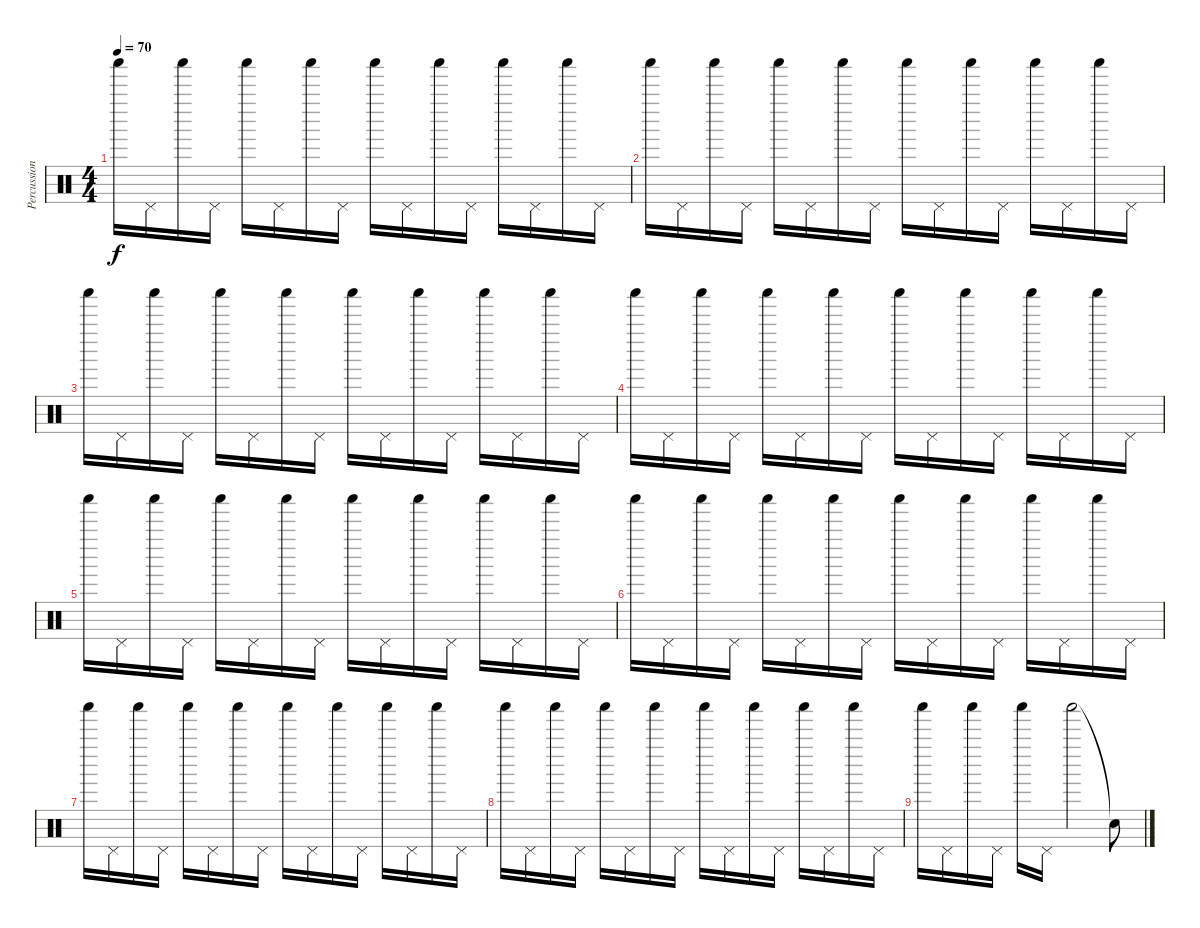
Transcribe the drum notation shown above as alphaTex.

\track ("Percussion 2" "Percussion") {instrument percussion}
\staff {score}
\articulation defaults
\ts (4 4)
\tempo 70
\clef neutral
\ks c "Shaker (hit)".16{dy f} "Pedal Hi-Hat (hit)".16 "Shaker (hit)".16 "Pedal Hi-Hat (hit)".16 "Shaker (hit)".16 "Pedal Hi-Hat (hit)".16 "Shaker (hit)".16 "Pedal Hi-Hat (hit)".16 "Shaker (hit)".16 "Pedal Hi-Hat (hit)".16 "Shaker (hit)".16 "Pedal Hi-Hat (hit)".16 "Shaker (hit)".16 "Pedal Hi-Hat (hit)".16 "Shaker (hit)".16 "Pedal Hi-Hat (hit)".16
|
"Shaker (hit)".16 "Pedal Hi-Hat (hit)".16 "Shaker (hit)".16 "Pedal Hi-Hat (hit)".16 "Shaker (hit)".16 "Pedal Hi-Hat (hit)".16 "Shaker (hit)".16 "Pedal Hi-Hat (hit)".16 "Shaker (hit)".16 "Pedal Hi-Hat (hit)".16 "Shaker (hit)".16 "Pedal Hi-Hat (hit)".16 "Shaker (hit)".16 "Pedal Hi-Hat (hit)".16 "Shaker (hit)".16 "Pedal Hi-Hat (hit)".16 |
"Shaker (hit)".16 "Pedal Hi-Hat (hit)".16 "Shaker (hit)".16 "Pedal Hi-Hat (hit)".16 "Shaker (hit)".16 "Pedal Hi-Hat (hit)".16 "Shaker (hit)".16 "Pedal Hi-Hat (hit)".16 "Shaker (hit)".16 "Pedal Hi-Hat (hit)".16 "Shaker (hit)".16 "Pedal Hi-Hat (hit)".16 "Shaker (hit)".16 "Pedal Hi-Hat (hit)".16 "Shaker (hit)".16 "Pedal Hi-Hat (hit)".16 |
"Shaker (hit)".16 "Pedal Hi-Hat (hit)".16 "Shaker (hit)".16 "Pedal Hi-Hat (hit)".16 "Shaker (hit)".16 "Pedal Hi-Hat (hit)".16 "Shaker (hit)".16 "Pedal Hi-Hat (hit)".16 "Shaker (hit)".16 "Pedal Hi-Hat (hit)".16 "Shaker (hit)".16 "Pedal Hi-Hat (hit)".16 "Shaker (hit)".16 "Pedal Hi-Hat (hit)".16 "Shaker (hit)".16 "Pedal Hi-Hat (hit)".16 |
"Shaker (hit)".16 "Pedal Hi-Hat (hit)".16 "Shaker (hit)".16 "Pedal Hi-Hat (hit)".16 "Shaker (hit)".16 "Pedal Hi-Hat (hit)".16 "Shaker (hit)".16 "Pedal Hi-Hat (hit)".16 "Shaker (hit)".16 "Pedal Hi-Hat (hit)".16 "Shaker (hit)".16 "Pedal Hi-Hat (hit)".16 "Shaker (hit)".16 "Pedal Hi-Hat (hit)".16 "Shaker (hit)".16 "Pedal Hi-Hat (hit)".16 |
"Shaker (hit)".16 "Pedal Hi-Hat (hit)".16 "Shaker (hit)".16 "Pedal Hi-Hat (hit)".16 "Shaker (hit)".16 "Pedal Hi-Hat (hit)".16 "Shaker (hit)".16 "Pedal Hi-Hat (hit)".16 "Shaker (hit)".16 "Pedal Hi-Hat (hit)".16 "Shaker (hit)".16 "Pedal Hi-Hat (hit)".16 "Shaker (hit)".16 "Pedal Hi-Hat (hit)".16 "Shaker (hit)".16 "Pedal Hi-Hat (hit)".16 |
"Shaker (hit)".16 "Pedal Hi-Hat (hit)".16 "Shaker (hit)".16 "Pedal Hi-Hat (hit)".16 "Shaker (hit)".16 "Pedal Hi-Hat (hit)".16 "Shaker (hit)".16 "Pedal Hi-Hat (hit)".16 "Shaker (hit)".16 "Pedal Hi-Hat (hit)".16 "Shaker (hit)".16 "Pedal Hi-Hat (hit)".16 "Shaker (hit)".16 "Pedal Hi-Hat (hit)".16 "Shaker (hit)".16 "Pedal Hi-Hat (hit)".16 |
"Shaker (hit)".16 "Pedal Hi-Hat (hit)".16 "Shaker (hit)".16 "Pedal Hi-Hat (hit)".16 "Shaker (hit)".16 "Pedal Hi-Hat (hit)".16 "Shaker (hit)".16 "Pedal Hi-Hat (hit)".16 "Shaker (hit)".16 "Pedal Hi-Hat (hit)".16 "Shaker (hit)".16 "Pedal Hi-Hat (hit)".16 "Shaker (hit)".16 "Pedal Hi-Hat (hit)".16 "Shaker (hit)".16 "Pedal Hi-Hat (hit)".16 |
"Shaker (hit)".16 "Pedal Hi-Hat (hit)".16 "Shaker (hit)".16 "Pedal Hi-Hat (hit)".16 "Shaker (hit)".16 "Pedal Hi-Hat (hit)".16 "Shaker (hit)".2 "Snare (hit)"{t}.8
